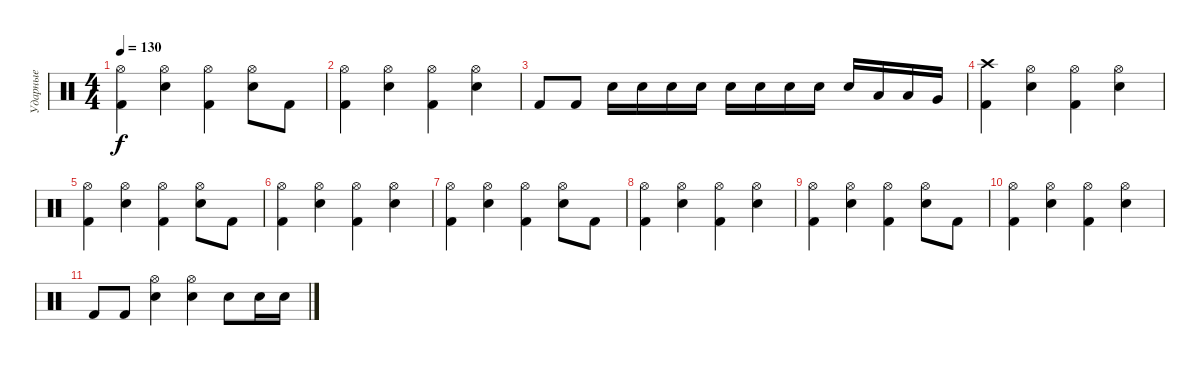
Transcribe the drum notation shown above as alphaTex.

\track ("Ударные" "Ударные") {instrument percussion}
\staff
\articulation defaults
\ts (4 4)
\tempo 130
\clef neutral
\ks c
("Kick (hit) 2" "Hi-Hat (open)").4{dy f} ("Snare (hit) 2" "Hi-Hat (open)").4 ("Kick (hit) 2" "Hi-Hat (open)").4 ("Snare (hit) 2" "Hi-Hat (open)").8 "Kick (hit) 2".8 |
("Kick (hit) 2" "Hi-Hat (open)").4 ("Snare (hit) 2" "Hi-Hat (open)").4 ("Kick (hit) 2" "Hi-Hat (open)").4 ("Snare (hit) 2" "Hi-Hat (open)").4 |
"Kick (hit) 2".8 "Kick (hit) 2".8 "Snare (hit) 2".16 "Electric Snare (hit)".16 "Electric Snare (hit)".16 "Electric Snare (hit)".16 "Snare (hit) 2".16 "Electric Snare (hit)".16 "Electric Snare (hit)".16 "Electric Snare (hit)".16 "Snare (hit) 2".16 "Low Tom (hit)".16 "Low Tom (hit)".16 "Very Low Tom (hit)".16 |
("Kick (hit) 2" "Crash high (hit)").4 ("Snare (hit) 2" "Hi-Hat (open)").4 ("Kick (hit) 2" "Hi-Hat (open)").4 ("Snare (hit) 2" "Hi-Hat (open)").4 |
("Kick (hit) 2" "Hi-Hat (open)").4 ("Snare (hit) 2" "Hi-Hat (open)").4 ("Kick (hit) 2" "Hi-Hat (open)").4 ("Snare (hit) 2" "Hi-Hat (open)").8 "Kick (hit) 2".8 |
("Kick (hit) 2" "Hi-Hat (open)").4 ("Snare (hit) 2" "Hi-Hat (open)").4 ("Kick (hit) 2" "Hi-Hat (open)").4 ("Snare (hit) 2" "Hi-Hat (open)").4 |
("Kick (hit) 2" "Hi-Hat (open)").4 ("Snare (hit) 2" "Hi-Hat (open)").4 ("Kick (hit) 2" "Hi-Hat (open)").4 ("Snare (hit) 2" "Hi-Hat (open)").8 "Kick (hit) 2".8 |
("Kick (hit) 2" "Hi-Hat (open)").4 ("Snare (hit) 2" "Hi-Hat (open)").4 ("Kick (hit) 2" "Hi-Hat (open)").4 ("Snare (hit) 2" "Hi-Hat (open)").4 |
("Kick (hit) 2" "Hi-Hat (open)").4 ("Snare (hit) 2" "Hi-Hat (open)").4 ("Kick (hit) 2" "Hi-Hat (open)").4 ("Snare (hit) 2" "Hi-Hat (open)").8 "Kick (hit) 2".8 |
("Kick (hit) 2" "Hi-Hat (open)").4 ("Snare (hit) 2" "Hi-Hat (open)").4 ("Kick (hit) 2" "Hi-Hat (open)").4 ("Snare (hit) 2" "Hi-Hat (open)").4 |
"Kick (hit) 2".8 "Kick (hit) 2".8 ("Snare (hit) 2" "Hi-Hat (open)").4 ("Snare (hit) 2" "Hi-Hat (open)").4 "Snare (hit) 2".8 "Snare (hit) 2".16 "Snare (hit) 2".16
